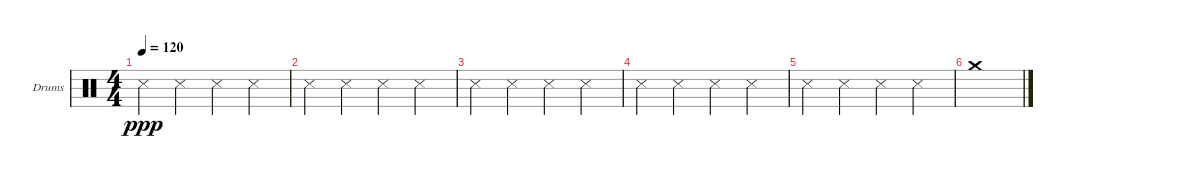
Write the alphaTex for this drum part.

\bracketExtendMode groupsimilarinstruments
\firstSystemTrackNameOrientation horizontal
\otherSystemsTrackNameOrientation horizontal
\track ("Drumkit" "Drums") {instrument percussion}
\staff {score}
\articulation defaults
\ts (4 4)
\tempo 120
\clef neutral
\ks c "Snare (side stick) 3".4{dy ppp} "Snare (side stick) 3".4 "Snare (side stick) 3".4 "Snare (side stick) 3".4
|
"Snare (side stick) 3".4 "Snare (side stick) 3".4 "Snare (side stick) 3".4 "Snare (side stick) 3".4 |
"Snare (side stick) 3".4 "Snare (side stick) 3".4 "Snare (side stick) 3".4 "Snare (side stick) 3".4 |
"Snare (side stick) 3".4 "Snare (side stick) 3".4 "Snare (side stick) 3".4 "Snare (side stick) 3".4 |
"Snare (side stick) 3".4 "Snare (side stick) 3".4 "Snare (side stick) 3".4 "Snare (side stick) 3".4 |
"Crash medium (hit)".1
